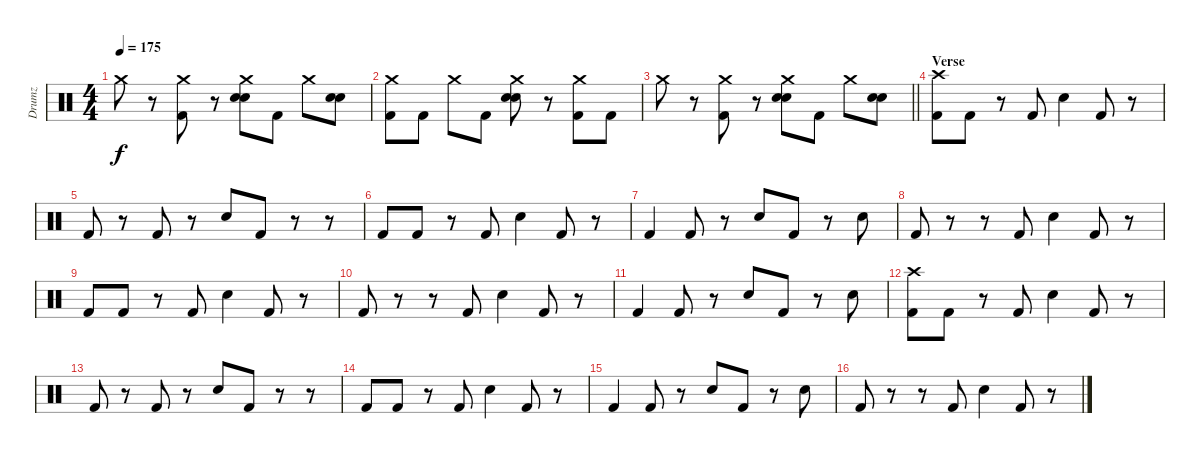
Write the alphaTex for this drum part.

\track ("Drumz" "Drumz") {instrument percussion}
\staff {score}
\articulation defaults
\ts (4 4)
\tempo 175
\clef neutral
\ks c "Crash medium (hit)".8{dy f}
r.8 ("Crash medium (hit)" "Kick (hit) 2").8 r.8 ("Crash medium (hit)" "Electric Snare (hit)" "Electric Snare (hit)").8 "Kick (hit) 2".8 "Crash medium (hit)".8 ("Electric Snare (hit)" "Electric Snare (hit)").8 |
("Crash medium (hit)" "Kick (hit) 2").8 "Kick (hit) 2".8 "Crash medium (hit)".8 "Kick (hit) 2".8 ("Crash medium (hit)" "Electric Snare (hit)" "Electric Snare (hit)").8 r.8 ("Crash medium (hit)" "Kick (hit) 2").8 "Kick (hit) 2".8 |
\barLineRight lightlight "Crash medium (hit)".8
r.8 ("Crash medium (hit)" "Kick (hit) 2").8 r.8 ("Crash medium (hit)" "Electric Snare (hit)" "Electric Snare (hit)").8 "Kick (hit) 2".8 "Crash medium (hit)".8 ("Electric Snare (hit)" "Electric Snare (hit)").8 |
\section ("" "Verse")
("Kick (hit) 2" "Crash high (hit)").8 "Kick (hit) 2".8 r.8 "Kick (hit) 2".8 "Snare (hit) 2".4 "Kick (hit) 2".8 r.8 |
"Kick (hit) 2".8 r.8 "Kick (hit) 2".8 r.8 "Snare (hit) 2".8 "Kick (hit) 2".8 r.8 r.8 |
"Kick (hit) 2".8 "Kick (hit) 2".8 r.8 "Kick (hit) 2".8 "Snare (hit) 2".4 "Kick (hit) 2".8 r.8 |
"Kick (hit) 2".4 "Kick (hit) 2".8 r.8 "Snare (hit) 2".8 "Kick (hit) 2".8 r.8 "Snare (hit) 2".8 |
"Kick (hit) 2".8 r.8 r.8 "Kick (hit) 2".8 "Snare (hit) 2".4 "Kick (hit) 2".8 r.8 |
"Kick (hit) 2".8 "Kick (hit) 2".8 r.8 "Kick (hit) 2".8 "Snare (hit) 2".4 "Kick (hit) 2".8 r.8 |
"Kick (hit) 2".8 r.8 r.8 "Kick (hit) 2".8 "Snare (hit) 2".4 "Kick (hit) 2".8 r.8 |
"Kick (hit) 2".4 "Kick (hit) 2".8 r.8 "Snare (hit) 2".8 "Kick (hit) 2".8 r.8 "Snare (hit) 2".8 |
("Kick (hit) 2" "Crash high (hit)").8 "Kick (hit) 2".8 r.8 "Kick (hit) 2".8 "Snare (hit) 2".4 "Kick (hit) 2".8 r.8 |
"Kick (hit) 2".8 r.8 "Kick (hit) 2".8 r.8 "Snare (hit) 2".8 "Kick (hit) 2".8 r.8 r.8 |
"Kick (hit) 2".8 "Kick (hit) 2".8 r.8 "Kick (hit) 2".8 "Snare (hit) 2".4 "Kick (hit) 2".8 r.8 |
"Kick (hit) 2".4 "Kick (hit) 2".8 r.8 "Snare (hit) 2".8 "Kick (hit) 2".8 r.8 "Snare (hit) 2".8 |
"Kick (hit) 2".8 r.8 r.8 "Kick (hit) 2".8 "Snare (hit) 2".4 "Kick (hit) 2".8 r.8
